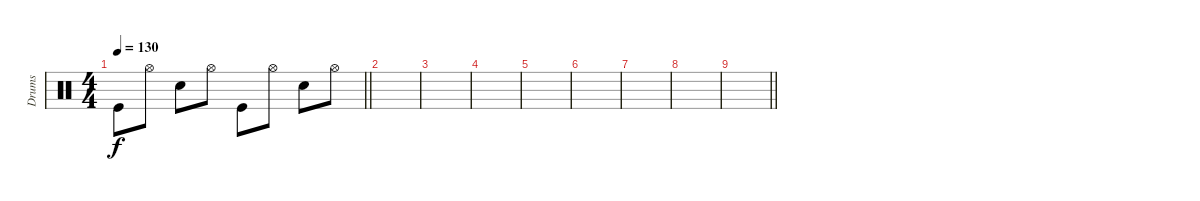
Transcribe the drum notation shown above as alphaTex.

\track ("Drums" "Drums") {instrument percussion}
\staff {score}
\articulation defaults
\ts (4 4)
\tempo 130
\clef neutral
\barLineRight lightlight
\ks c "Kick (hit)".8{dy f} "Hi-Hat (open)".8 "Snare (hit) 2".8 "Hi-Hat (open)".8 "Kick (hit)".8 "Hi-Hat (open)".8 "Snare (hit) 2".8 "Hi-Hat (open)".8
|
\section ("" "")
|
|
|
|
|
|
|
\barLineRight lightlight
